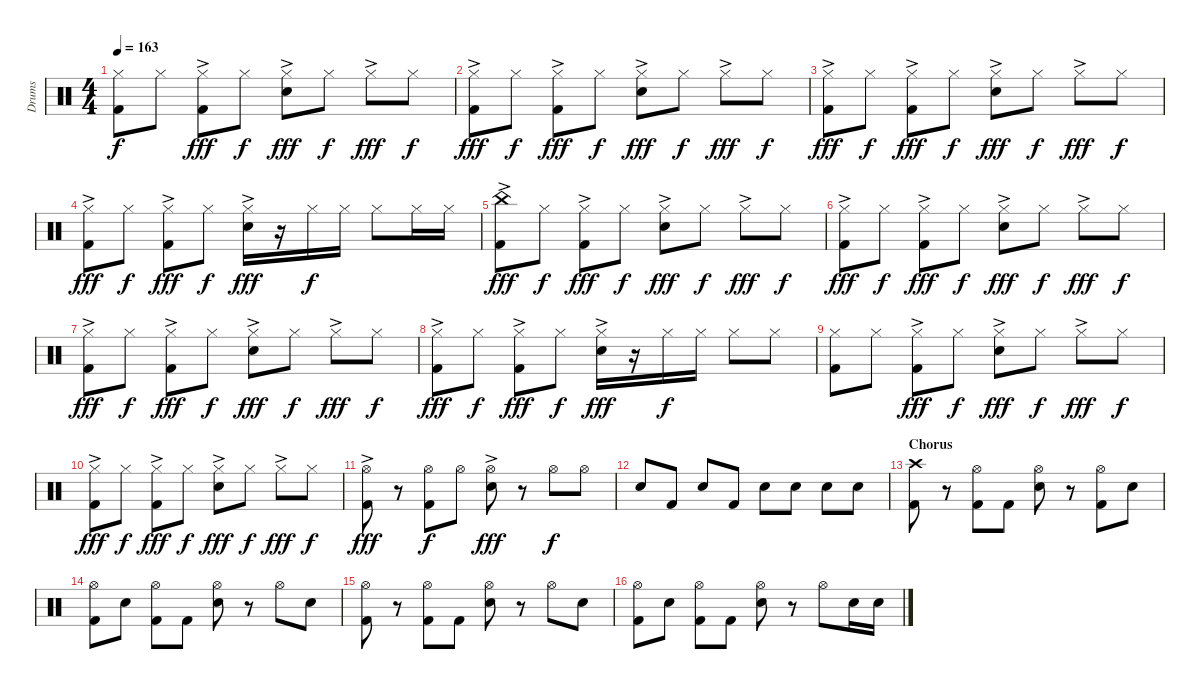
\track ("Drums" "Drums") {instrument percussion}
\staff {score}
\articulation defaults
\ts (4 4)
\tempo 163
\clef neutral
\ks c
("Hi-Hat (closed)" "Kick (hit) 2").8{dy f} "Hi-Hat (closed)".8 ("Hi-Hat (closed)"{ac} "Kick (hit) 2").8{dy fff} "Hi-Hat (closed)".8{dy f} ("Hi-Hat (closed)"{ac} "Snare (hit) 2").8{dy fff} "Hi-Hat (closed)".8{dy f} "Hi-Hat (closed)"{ac}.8{dy fff} "Hi-Hat (closed)".8{dy f} |
("Hi-Hat (closed)"{ac} "Kick (hit) 2").8{dy fff} "Hi-Hat (closed)".8{dy f} ("Hi-Hat (closed)"{ac} "Kick (hit) 2").8{dy fff} "Hi-Hat (closed)".8{dy f} ("Hi-Hat (closed)"{ac} "Snare (hit) 2").8{dy fff} "Hi-Hat (closed)".8{dy f} "Hi-Hat (closed)"{ac}.8{dy fff} "Hi-Hat (closed)".8{dy f} |
("Hi-Hat (closed)"{ac} "Kick (hit) 2").8{dy fff} "Hi-Hat (closed)".8{dy f} ("Hi-Hat (closed)"{ac} "Kick (hit) 2").8{dy fff} "Hi-Hat (closed)".8{dy f} ("Hi-Hat (closed)"{ac} "Snare (hit) 2").8{dy fff} "Hi-Hat (closed)".8{dy f} "Hi-Hat (closed)"{ac}.8{dy fff} "Hi-Hat (closed)".8{dy f} |
("Hi-Hat (closed)"{ac} "Kick (hit) 2").8{dy fff} "Hi-Hat (closed)".8{dy f} ("Hi-Hat (closed)"{ac} "Kick (hit) 2").8{dy fff} "Hi-Hat (closed)".8{dy f} ("Hi-Hat (closed)"{ac} "Snare (hit) 2").16{dy fff} r.16 "Hi-Hat (closed)".16{dy f} "Hi-Hat (closed)".16 "Hi-Hat (closed)".8 "Hi-Hat (closed)".16 "Hi-Hat (closed)".16 |
("China (hit)"{ac} "Kick (hit) 2").8{dy fff} "Hi-Hat (closed)".8{dy f} ("Hi-Hat (closed)"{ac} "Kick (hit) 2").8{dy fff} "Hi-Hat (closed)".8{dy f} ("Hi-Hat (closed)"{ac} "Snare (hit) 2").8{dy fff} "Hi-Hat (closed)".8{dy f} "Hi-Hat (closed)"{ac}.8{dy fff} "Hi-Hat (closed)".8{dy f} |
("Hi-Hat (closed)"{ac} "Kick (hit) 2").8{dy fff} "Hi-Hat (closed)".8{dy f} ("Hi-Hat (closed)"{ac} "Kick (hit) 2").8{dy fff} "Hi-Hat (closed)".8{dy f} ("Hi-Hat (closed)"{ac} "Snare (hit) 2").8{dy fff} "Hi-Hat (closed)".8{dy f} "Hi-Hat (closed)"{ac}.8{dy fff} "Hi-Hat (closed)".8{dy f} |
("Hi-Hat (closed)"{ac} "Kick (hit) 2").8{dy fff} "Hi-Hat (closed)".8{dy f} ("Hi-Hat (closed)"{ac} "Kick (hit) 2").8{dy fff} "Hi-Hat (closed)".8{dy f} ("Hi-Hat (closed)"{ac} "Snare (hit) 2").8{dy fff} "Hi-Hat (closed)".8{dy f} "Hi-Hat (closed)"{ac}.8{dy fff} "Hi-Hat (closed)".8{dy f} |
("Hi-Hat (closed)"{ac} "Kick (hit) 2").8{dy fff} "Hi-Hat (closed)".8{dy f} ("Hi-Hat (closed)"{ac} "Kick (hit) 2").8{dy fff} "Hi-Hat (closed)".8{dy f} ("Hi-Hat (closed)"{ac} "Snare (hit) 2").16{dy fff} r.16 "Hi-Hat (closed)".16{dy f} "Hi-Hat (closed)".16 "Hi-Hat (closed)".8 "Hi-Hat (closed)".8 |
("Hi-Hat (closed)" "Kick (hit) 2").8 "Hi-Hat (closed)".8 ("Hi-Hat (closed)"{ac} "Kick (hit) 2").8{dy fff} "Hi-Hat (closed)".8{dy f} ("Hi-Hat (closed)"{ac} "Snare (hit) 2").8{dy fff} "Hi-Hat (closed)".8{dy f} "Hi-Hat (closed)"{ac}.8{dy fff} "Hi-Hat (closed)".8{dy f} |
("Hi-Hat (closed)"{ac} "Kick (hit) 2").8{dy fff} "Hi-Hat (closed)".8{dy f} ("Hi-Hat (closed)"{ac} "Kick (hit) 2").8{dy fff} "Hi-Hat (closed)".8{dy f} ("Hi-Hat (closed)"{ac} "Snare (hit) 2").8{dy fff} "Hi-Hat (closed)".8{dy f} "Hi-Hat (closed)"{ac}.8{dy fff} "Hi-Hat (closed)".8{dy f} |
("Hi-Hat (open)"{ac} "Kick (hit) 2").8{dy fff} r.8 ("Hi-Hat (open)" "Kick (hit) 2").8{dy f} "Hi-Hat (open)".8 ("Hi-Hat (open)"{ac} "Snare (hit) 2").8{dy fff} r.8 "Hi-Hat (open)".8{dy f} "Hi-Hat (open)".8 |
"Snare (hit) 2".8 "Kick (hit) 2".8 "Snare (hit) 2".8 "Kick (hit) 2".8 "Snare (hit) 2".8 "Snare (hit) 2".8 "Snare (hit) 2".8 "Snare (hit) 2".8 |
\section ("" "Chorus")
("Crash high (hit)" "Kick (hit) 2").8 r.8 ("Hi-Hat (open)" "Kick (hit) 2").8 "Kick (hit) 2".8 ("Hi-Hat (open)" "Snare (hit) 2").8 r.8 ("Hi-Hat (open)" "Kick (hit) 2").8 "Snare (hit) 2".8 |
("Hi-Hat (open)" "Kick (hit) 2").8 "Snare (hit) 2".8 ("Hi-Hat (open)" "Kick (hit) 2").8 "Kick (hit) 2".8 ("Hi-Hat (open)" "Snare (hit) 2").8 r.8 "Hi-Hat (open)".8 "Snare (hit) 2".8 |
("Hi-Hat (open)" "Kick (hit) 2").8 r.8 ("Hi-Hat (open)" "Kick (hit) 2").8 "Kick (hit) 2".8 ("Hi-Hat (open)" "Snare (hit) 2").8 r.8 "Hi-Hat (open)".8 "Snare (hit) 2".8 |
("Hi-Hat (open)" "Kick (hit) 2").8 "Snare (hit) 2".8 ("Hi-Hat (open)" "Kick (hit) 2").8 "Kick (hit) 2".8 ("Hi-Hat (open)" "Snare (hit) 2").8 r.8 "Hi-Hat (open)".8 "Snare (hit) 2".16 "Snare (hit) 2".16
